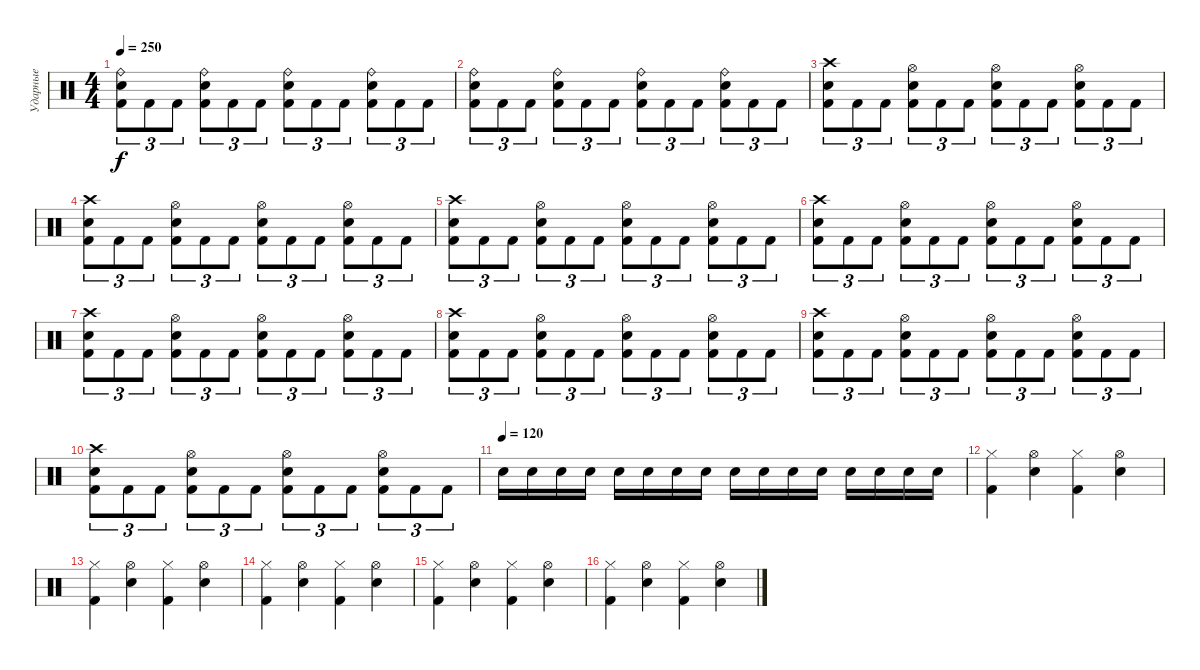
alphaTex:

\track ("Ударные" "Ударные") {instrument percussion}
\staff {score}
\articulation defaults
\ts (4 4)
\tempo 250
\clef neutral
\ks c
("Ride (bell)" "Snare (hit) 2" "Kick (hit) 2").8{tu (3 2) dy f} "Kick (hit) 2".8{tu (3 2)} "Kick (hit) 2".8{tu (3 2)} ("Ride (bell)" "Snare (hit) 2" "Kick (hit) 2").8{tu (3 2)} "Kick (hit) 2".8{tu (3 2)} "Kick (hit) 2".8{tu (3 2)} ("Ride (bell)" "Snare (hit) 2" "Kick (hit) 2").8{tu (3 2)} "Kick (hit) 2".8{tu (3 2)} "Kick (hit) 2".8{tu (3 2)} ("Ride (bell)" "Snare (hit) 2" "Kick (hit) 2").8{tu (3 2)} "Kick (hit) 2".8{tu (3 2)} "Kick (hit) 2".8{tu (3 2)} |
("Ride (bell)" "Snare (hit) 2" "Kick (hit) 2").8{tu (3 2)} "Kick (hit) 2".8{tu (3 2)} "Kick (hit) 2".8{tu (3 2)} ("Ride (bell)" "Snare (hit) 2" "Kick (hit) 2").8{tu (3 2)} "Kick (hit) 2".8{tu (3 2)} "Kick (hit) 2".8{tu (3 2)} ("Ride (bell)" "Snare (hit) 2" "Kick (hit) 2").8{tu (3 2)} "Kick (hit) 2".8{tu (3 2)} "Kick (hit) 2".8{tu (3 2)} ("Ride (bell)" "Snare (hit) 2" "Kick (hit) 2").8{tu (3 2)} "Kick (hit) 2".8{tu (3 2)} "Kick (hit) 2".8{tu (3 2)} |
("Crash high (hit)" "Snare (hit) 2" "Kick (hit) 2").8{tu (3 2)} "Kick (hit) 2".8{tu (3 2)} "Kick (hit) 2".8{tu (3 2)} ("Hi-Hat (open)" "Snare (hit) 2" "Kick (hit) 2").8{tu (3 2)} "Kick (hit) 2".8{tu (3 2)} "Kick (hit) 2".8{tu (3 2)} ("Hi-Hat (open)" "Snare (hit) 2" "Kick (hit) 2").8{tu (3 2)} "Kick (hit) 2".8{tu (3 2)} "Kick (hit) 2".8{tu (3 2)} ("Hi-Hat (open)" "Snare (hit) 2" "Kick (hit) 2").8{tu (3 2)} "Kick (hit) 2".8{tu (3 2)} "Kick (hit) 2".8{tu (3 2)} |
("Crash high (hit)" "Snare (hit) 2" "Kick (hit) 2").8{tu (3 2)} "Kick (hit) 2".8{tu (3 2)} "Kick (hit) 2".8{tu (3 2)} ("Hi-Hat (open)" "Snare (hit) 2" "Kick (hit) 2").8{tu (3 2)} "Kick (hit) 2".8{tu (3 2)} "Kick (hit) 2".8{tu (3 2)} ("Hi-Hat (open)" "Snare (hit) 2" "Kick (hit) 2").8{tu (3 2)} "Kick (hit) 2".8{tu (3 2)} "Kick (hit) 2".8{tu (3 2)} ("Hi-Hat (open)" "Snare (hit) 2" "Kick (hit) 2").8{tu (3 2)} "Kick (hit) 2".8{tu (3 2)} "Kick (hit) 2".8{tu (3 2)} |
("Crash high (hit)" "Snare (hit) 2" "Kick (hit) 2").8{tu (3 2)} "Kick (hit) 2".8{tu (3 2)} "Kick (hit) 2".8{tu (3 2)} ("Hi-Hat (open)" "Snare (hit) 2" "Kick (hit) 2").8{tu (3 2)} "Kick (hit) 2".8{tu (3 2)} "Kick (hit) 2".8{tu (3 2)} ("Hi-Hat (open)" "Snare (hit) 2" "Kick (hit) 2").8{tu (3 2)} "Kick (hit) 2".8{tu (3 2)} "Kick (hit) 2".8{tu (3 2)} ("Hi-Hat (open)" "Snare (hit) 2" "Kick (hit) 2").8{tu (3 2)} "Kick (hit) 2".8{tu (3 2)} "Kick (hit) 2".8{tu (3 2)} |
("Crash high (hit)" "Snare (hit) 2" "Kick (hit) 2").8{tu (3 2)} "Kick (hit) 2".8{tu (3 2)} "Kick (hit) 2".8{tu (3 2)} ("Hi-Hat (open)" "Snare (hit) 2" "Kick (hit) 2").8{tu (3 2)} "Kick (hit) 2".8{tu (3 2)} "Kick (hit) 2".8{tu (3 2)} ("Hi-Hat (open)" "Snare (hit) 2" "Kick (hit) 2").8{tu (3 2)} "Kick (hit) 2".8{tu (3 2)} "Kick (hit) 2".8{tu (3 2)} ("Hi-Hat (open)" "Snare (hit) 2" "Kick (hit) 2").8{tu (3 2)} "Kick (hit) 2".8{tu (3 2)} "Kick (hit) 2".8{tu (3 2)} |
("Crash high (hit)" "Snare (hit) 2" "Kick (hit) 2").8{tu (3 2)} "Kick (hit) 2".8{tu (3 2)} "Kick (hit) 2".8{tu (3 2)} ("Hi-Hat (open)" "Snare (hit) 2" "Kick (hit) 2").8{tu (3 2)} "Kick (hit) 2".8{tu (3 2)} "Kick (hit) 2".8{tu (3 2)} ("Hi-Hat (open)" "Snare (hit) 2" "Kick (hit) 2").8{tu (3 2)} "Kick (hit) 2".8{tu (3 2)} "Kick (hit) 2".8{tu (3 2)} ("Hi-Hat (open)" "Snare (hit) 2" "Kick (hit) 2").8{tu (3 2)} "Kick (hit) 2".8{tu (3 2)} "Kick (hit) 2".8{tu (3 2)} |
("Crash high (hit)" "Snare (hit) 2" "Kick (hit) 2").8{tu (3 2)} "Kick (hit) 2".8{tu (3 2)} "Kick (hit) 2".8{tu (3 2)} ("Hi-Hat (open)" "Snare (hit) 2" "Kick (hit) 2").8{tu (3 2)} "Kick (hit) 2".8{tu (3 2)} "Kick (hit) 2".8{tu (3 2)} ("Hi-Hat (open)" "Snare (hit) 2" "Kick (hit) 2").8{tu (3 2)} "Kick (hit) 2".8{tu (3 2)} "Kick (hit) 2".8{tu (3 2)} ("Hi-Hat (open)" "Snare (hit) 2" "Kick (hit) 2").8{tu (3 2)} "Kick (hit) 2".8{tu (3 2)} "Kick (hit) 2".8{tu (3 2)} |
("Crash high (hit)" "Snare (hit) 2" "Kick (hit) 2").8{tu (3 2)} "Kick (hit) 2".8{tu (3 2)} "Kick (hit) 2".8{tu (3 2)} ("Hi-Hat (open)" "Snare (hit) 2" "Kick (hit) 2").8{tu (3 2)} "Kick (hit) 2".8{tu (3 2)} "Kick (hit) 2".8{tu (3 2)} ("Hi-Hat (open)" "Snare (hit) 2" "Kick (hit) 2").8{tu (3 2)} "Kick (hit) 2".8{tu (3 2)} "Kick (hit) 2".8{tu (3 2)} ("Hi-Hat (open)" "Snare (hit) 2" "Kick (hit) 2").8{tu (3 2)} "Kick (hit) 2".8{tu (3 2)} "Kick (hit) 2".8{tu (3 2)} |
("Crash high (hit)" "Snare (hit) 2" "Kick (hit) 2").8{tu (3 2)} "Kick (hit) 2".8{tu (3 2)} "Kick (hit) 2".8{tu (3 2)} ("Hi-Hat (open)" "Snare (hit) 2" "Kick (hit) 2").8{tu (3 2)} "Kick (hit) 2".8{tu (3 2)} "Kick (hit) 2".8{tu (3 2)} ("Hi-Hat (open)" "Snare (hit) 2" "Kick (hit) 2").8{tu (3 2)} "Kick (hit) 2".8{tu (3 2)} "Kick (hit) 2".8{tu (3 2)} ("Hi-Hat (open)" "Snare (hit) 2" "Kick (hit) 2").8{tu (3 2)} "Kick (hit) 2".8{tu (3 2)} "Kick (hit) 2".8{tu (3 2)} |
\tempo (120)
"Snare (hit) 2".16 "Snare (hit) 2".16 "Snare (hit) 2".16 "Snare (hit) 2".16 "Snare (hit) 2".16 "Snare (hit) 2".16 "Snare (hit) 2".16 "Snare (hit) 2".16 "Snare (hit) 2".16 "Snare (hit) 2".16 "Snare (hit) 2".16 "Snare (hit) 2".16 "Snare (hit) 2".16 "Snare (hit) 2".16 "Snare (hit) 2".16 "Snare (hit) 2".16 |
("Hi-Hat (closed)" "Kick (hit) 2").4 ("Hi-Hat (open)" "Snare (hit) 2").4 ("Hi-Hat (closed)" "Kick (hit) 2").4 ("Hi-Hat (open)" "Snare (hit) 2").4 |
("Hi-Hat (closed)" "Kick (hit) 2").4 ("Hi-Hat (open)" "Snare (hit) 2").4 ("Hi-Hat (closed)" "Kick (hit) 2").4 ("Hi-Hat (open)" "Snare (hit) 2").4 |
("Hi-Hat (closed)" "Kick (hit) 2").4 ("Hi-Hat (open)" "Snare (hit) 2").4 ("Hi-Hat (closed)" "Kick (hit) 2").4 ("Hi-Hat (open)" "Snare (hit) 2").4 |
("Hi-Hat (closed)" "Kick (hit) 2").4 ("Hi-Hat (open)" "Snare (hit) 2").4 ("Hi-Hat (closed)" "Kick (hit) 2").4 ("Hi-Hat (open)" "Snare (hit) 2").4 |
("Hi-Hat (closed)" "Kick (hit) 2").4 ("Hi-Hat (open)" "Snare (hit) 2").4 ("Hi-Hat (closed)" "Kick (hit) 2").4 ("Hi-Hat (open)" "Snare (hit) 2").4
